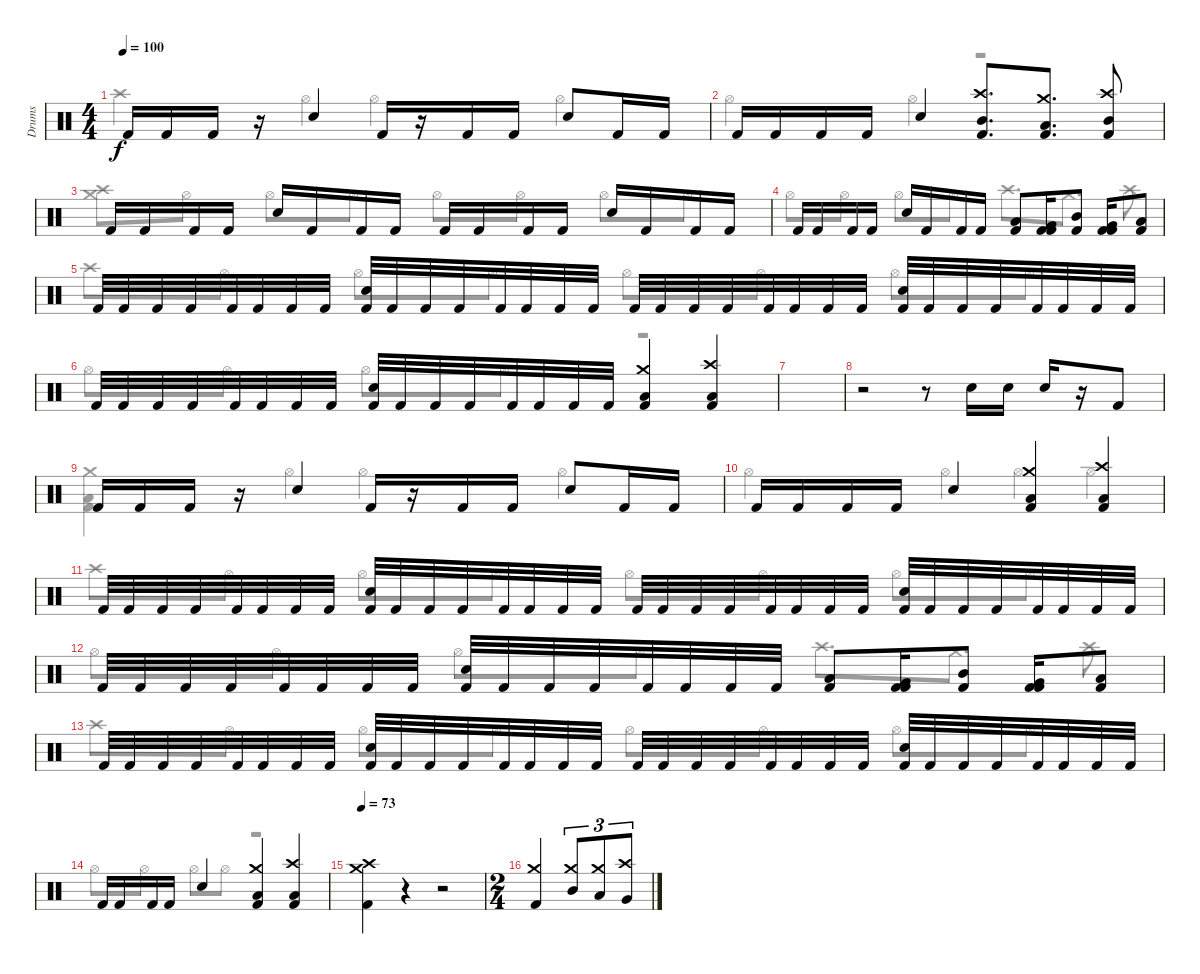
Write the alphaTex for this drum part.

\track ("Drums" "Drums") {instrument percussion}
\staff {score}
\articulation defaults
\voice
\ts (4 4)
\tempo 100
\clef neutral
\ks c "Kick (hit) 2".16{dy f} "Kick (hit) 2".16 "Kick (hit) 2".16
r.16 "Snare (hit) 2".4 "Kick (hit) 2".16 r.16 "Kick (hit) 2".16 "Kick (hit) 2".16 "Snare (hit) 2".8 "Kick (hit) 2".16 "Kick (hit) 2".16 |
"Kick (hit) 2".16 "Kick (hit) 2".16 "Kick (hit) 2".16 "Kick (hit) 2".16 "Snare (hit) 2".4 ("Kick (hit) 2" "Crash high (hit)" "Mid Tom (hit)").8{d} ("Kick (hit) 2" "Crash medium (hit)" "Low Tom (hit)").8{d} ("Kick (hit) 2" "Crash high (hit)" "Mid Tom (hit)").8 |
"Kick (hit) 2".16 "Kick (hit) 2".16 "Kick (hit) 2".16 "Kick (hit) 2".16 "Snare (hit) 2".16 "Kick (hit) 2".16 "Kick (hit) 2".16 "Kick (hit) 2".16 "Kick (hit) 2".16 "Kick (hit) 2".16 "Kick (hit) 2".16 "Kick (hit) 2".16 "Snare (hit) 2".16 "Kick (hit) 2".16 "Kick (hit) 2".16 "Kick (hit) 2".16 |
"Kick (hit) 2".16 "Kick (hit) 2".16 "Kick (hit) 2".16 "Kick (hit) 2".16 "Snare (hit) 2".16 "Kick (hit) 2".16 "Kick (hit) 2".16 "Kick (hit) 2".16 ("Kick (hit) 2" "Low Tom (hit)").8 ("Kick (hit) 2" "Very Low Tom (hit)" "Kick (hit) 2").16 ("Kick (hit) 2" "Mid Tom (hit)").8 ("Kick (hit) 2" "Very Low Tom (hit)" "Kick (hit) 2").16 ("Kick (hit) 2" "Low Tom (hit)").8 |
"Kick (hit) 2".32 "Kick (hit) 2".32 "Kick (hit) 2".32 "Kick (hit) 2".32 "Kick (hit) 2".32 "Kick (hit) 2".32 "Kick (hit) 2".32 "Kick (hit) 2".32 ("Kick (hit) 2" "Snare (hit) 2").32 "Kick (hit) 2".32 "Kick (hit) 2".32 "Kick (hit) 2".32 "Kick (hit) 2".32 "Kick (hit) 2".32 "Kick (hit) 2".32 "Kick (hit) 2".32 "Kick (hit) 2".32 "Kick (hit) 2".32 "Kick (hit) 2".32 "Kick (hit) 2".32 "Kick (hit) 2".32 "Kick (hit) 2".32 "Kick (hit) 2".32 "Kick (hit) 2".32 ("Kick (hit) 2" "Snare (hit) 2").32 "Kick (hit) 2".32 "Kick (hit) 2".32 "Kick (hit) 2".32 "Kick (hit) 2".32 "Kick (hit) 2".32 "Kick (hit) 2".32 "Kick (hit) 2".32 |
"Kick (hit) 2".32 "Kick (hit) 2".32 "Kick (hit) 2".32 "Kick (hit) 2".32 "Kick (hit) 2".32 "Kick (hit) 2".32 "Kick (hit) 2".32 "Kick (hit) 2".32 ("Kick (hit) 2" "Snare (hit) 2").32 "Kick (hit) 2".32 "Kick (hit) 2".32 "Kick (hit) 2".32 "Kick (hit) 2".32 "Kick (hit) 2".32 "Kick (hit) 2".32 "Kick (hit) 2".32 ("Low Tom (hit)" "Crash medium (hit)" "Kick (hit) 2").4 ("Low Tom (hit)" "Kick (hit) 2" "Crash high (hit)").4 |
|
r.2 r.8 "Snare (hit) 2".16 "Snare (hit) 2".16 "Snare (hit) 2".16 r.16 "Kick (hit) 2".8 |
"Kick (hit) 2".16 "Kick (hit) 2".16 "Kick (hit) 2".16 r.16 "Snare (hit) 2".4 "Kick (hit) 2".16 r.16 "Kick (hit) 2".16 "Kick (hit) 2".16 "Snare (hit) 2".8 "Kick (hit) 2".16 "Kick (hit) 2".16 |
"Kick (hit) 2".16 "Kick (hit) 2".16 "Kick (hit) 2".16 "Kick (hit) 2".16 "Snare (hit) 2".4 ("Low Tom (hit)" "Crash medium (hit)" "Kick (hit) 2").4 ("Low Tom (hit)" "Kick (hit) 2" "Crash high (hit)").4 |
"Kick (hit) 2".32 "Kick (hit) 2".32 "Kick (hit) 2".32 "Kick (hit) 2".32 "Kick (hit) 2".32 "Kick (hit) 2".32 "Kick (hit) 2".32 "Kick (hit) 2".32 ("Kick (hit) 2" "Snare (hit) 2").32 "Kick (hit) 2".32 "Kick (hit) 2".32 "Kick (hit) 2".32 "Kick (hit) 2".32 "Kick (hit) 2".32 "Kick (hit) 2".32 "Kick (hit) 2".32 "Kick (hit) 2".32 "Kick (hit) 2".32 "Kick (hit) 2".32 "Kick (hit) 2".32 "Kick (hit) 2".32 "Kick (hit) 2".32 "Kick (hit) 2".32 "Kick (hit) 2".32 ("Kick (hit) 2" "Snare (hit) 2").32 "Kick (hit) 2".32 "Kick (hit) 2".32 "Kick (hit) 2".32 "Kick (hit) 2".32 "Kick (hit) 2".32 "Kick (hit) 2".32 "Kick (hit) 2".32 |
"Kick (hit) 2".32 "Kick (hit) 2".32 "Kick (hit) 2".32 "Kick (hit) 2".32 "Kick (hit) 2".32 "Kick (hit) 2".32 "Kick (hit) 2".32 "Kick (hit) 2".32 ("Kick (hit) 2" "Snare (hit) 2").32 "Kick (hit) 2".32 "Kick (hit) 2".32 "Kick (hit) 2".32 "Kick (hit) 2".32 "Kick (hit) 2".32 "Kick (hit) 2".32 "Kick (hit) 2".32 ("Kick (hit) 2" "Low Tom (hit)").8 ("Kick (hit) 2" "Very Low Tom (hit)" "Kick (hit) 2").16 ("Kick (hit) 2" "Mid Tom (hit)").8 ("Kick (hit) 2" "Very Low Tom (hit)" "Kick (hit) 2").16 ("Kick (hit) 2" "Low Tom (hit)").8 |
"Kick (hit) 2".32 "Kick (hit) 2".32 "Kick (hit) 2".32 "Kick (hit) 2".32 "Kick (hit) 2".32 "Kick (hit) 2".32 "Kick (hit) 2".32 "Kick (hit) 2".32 ("Kick (hit) 2" "Snare (hit) 2").32 "Kick (hit) 2".32 "Kick (hit) 2".32 "Kick (hit) 2".32 "Kick (hit) 2".32 "Kick (hit) 2".32 "Kick (hit) 2".32 "Kick (hit) 2".32 "Kick (hit) 2".32 "Kick (hit) 2".32 "Kick (hit) 2".32 "Kick (hit) 2".32 "Kick (hit) 2".32 "Kick (hit) 2".32 "Kick (hit) 2".32 "Kick (hit) 2".32 ("Kick (hit) 2" "Snare (hit) 2").32 "Kick (hit) 2".32 "Kick (hit) 2".32 "Kick (hit) 2".32 "Kick (hit) 2".32 "Kick (hit) 2".32 "Kick (hit) 2".32 "Kick (hit) 2".32 |
"Kick (hit) 2".16 "Kick (hit) 2".16 "Kick (hit) 2".16 "Kick (hit) 2".16 "Snare (hit) 2".4 ("Low Tom (hit)" "Crash medium (hit)" "Kick (hit) 2").4 ("Low Tom (hit)" "Kick (hit) 2" "Crash high (hit)").4 |
\tempo 73
("Kick (hit) 2" "Crash high (hit)" "Crash medium (hit)").4 r.4 r.2 |
\ts (2 4)
("Crash medium (hit)" "Kick (hit) 2").4{beam Up} ("Mid Tom (hit)" "Crash medium (hit)").8{tu (3 2) beam Up} ("Low Tom (hit)" "Crash medium (hit)").8{tu (3 2) beam Up} ("Very Low Tom (hit)" "Crash high (hit)").8{tu (3 2) beam Up}
\voice
\clef neutral
\ottava regular
\simile none
\ks c "Crash high (hit)".4{dy f} "Hi-Hat (open)".4 "Hi-Hat (open)".4 "Hi-Hat (open)".4
|
"Hi-Hat (open)".4 "Hi-Hat (open)".4 r.2 |
("Crash high (hit)" "Crash medium (hit)").8 "Hi-Hat (open)".8 "Hi-Hat (open)".8 "Hi-Hat (open)".8 "Hi-Hat (open)".8 "Hi-Hat (open)".8 "Hi-Hat (open)".8 "Hi-Hat (open)".8 |
"Hi-Hat (open)".8 "Hi-Hat (open)".8 "Hi-Hat (open)".8 "Hi-Hat (open)".8 "Crash high (hit)".8{d} "Crash medium (hit)".8{d} "Crash high (hit)".8 |
"Crash high (hit)".8 "Hi-Hat (open)".8 "Hi-Hat (open)".8 "Hi-Hat (open)".8 "Hi-Hat (open)".8 "Hi-Hat (open)".8 "Hi-Hat (open)".8 "Hi-Hat (open)".8 |
"Hi-Hat (open)".8 "Hi-Hat (open)".8 "Hi-Hat (open)".8 "Hi-Hat (open)".8 r.2 |
|
|
("Low Tom (hit)" "Crash medium (hit)" "Kick (hit) 2").4 "Hi-Hat (open)".4 "Hi-Hat (open)".4 "Hi-Hat (open)".4 |
"Hi-Hat (open)".4 "Hi-Hat (open)".4 "Hi-Hat (open)".4 "Hi-Hat (open)".4 |
"Crash high (hit)".8 "Hi-Hat (open)".8 "Hi-Hat (open)".8 "Hi-Hat (open)".8 "Hi-Hat (open)".8 "Hi-Hat (open)".8 "Hi-Hat (open)".8 "Hi-Hat (open)".8 |
"Hi-Hat (open)".8 "Hi-Hat (open)".8 "Hi-Hat (open)".8 "Hi-Hat (open)".8 "Crash high (hit)".8{d} "Crash medium (hit)".8{d} "Crash high (hit)".8 |
"Crash high (hit)".8 "Hi-Hat (open)".8 "Hi-Hat (open)".8 "Hi-Hat (open)".8 "Hi-Hat (open)".8 "Hi-Hat (open)".8 "Hi-Hat (open)".8 "Hi-Hat (open)".8 |
"Hi-Hat (open)".8 "Hi-Hat (open)".8 "Hi-Hat (open)".8 "Hi-Hat (open)".8 r.2 |
|
